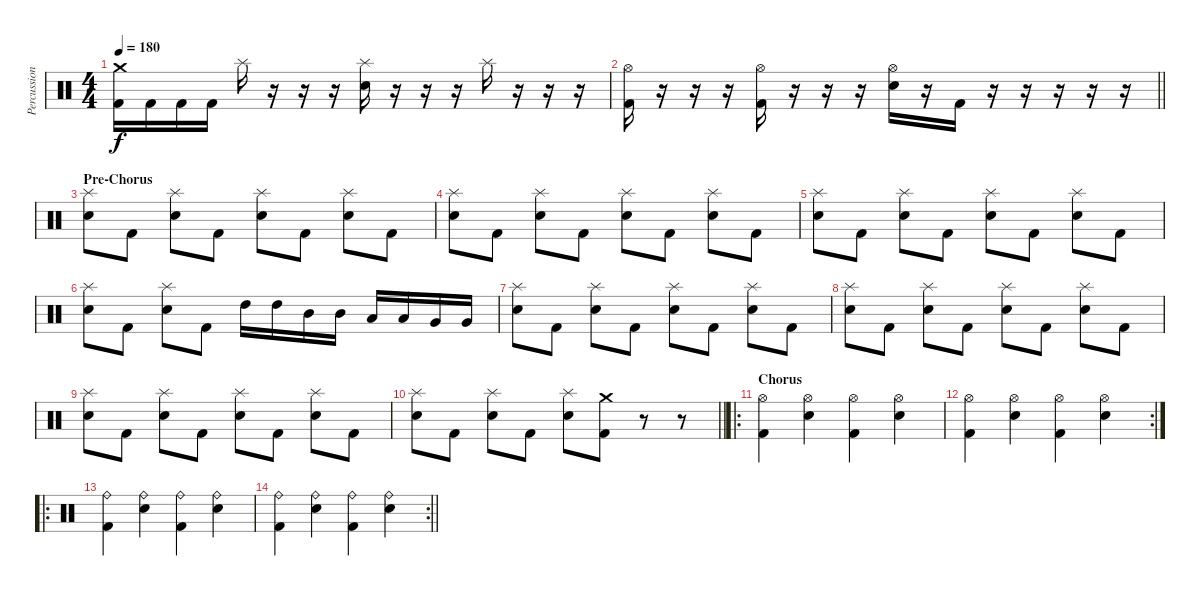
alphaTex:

\track ("Percussion" "Percussion") {instrument percussion}
\staff {score}
\articulation defaults
\ts (4 4)
\tempo 180
\clef neutral
\ks c
("Crash medium (hit)" "Kick (hit) 2").16{dy f} "Kick (hit) 2".16 "Kick (hit) 2".16 "Kick (hit) 2".16 "Splash (hit)".16 r.16 r.16 r.16 ("Splash (hit)" "Electric Snare (hit)").16 r.16 r.16 r.16 "Splash (hit)".16 r.16 r.16 r.16 |
\barLineRight lightlight
("Hi-Hat (open)" "Kick (hit) 2").16 r.16 r.16 r.16 ("Hi-Hat (open)" "Kick (hit) 2").16 r.16 r.16 r.16 ("Hi-Hat (open)" "Electric Snare (hit)").16 r.16 "Kick (hit) 2".16 r.16 r.16 r.16 r.16 r.16 |
\section ("" "Pre-Chorus")
("Splash (hit)" "Electric Snare (hit)").8 "Kick (hit) 2".8 ("Splash (hit)" "Electric Snare (hit)").8 "Kick (hit) 2".8 ("Splash (hit)" "Electric Snare (hit)").8 "Kick (hit) 2".8 ("Splash (hit)" "Electric Snare (hit)").8 "Kick (hit) 2".8 |
("Splash (hit)" "Electric Snare (hit)").8 "Kick (hit) 2".8 ("Splash (hit)" "Electric Snare (hit)").8 "Kick (hit) 2".8 ("Splash (hit)" "Electric Snare (hit)").8 "Kick (hit) 2".8 ("Splash (hit)" "Electric Snare (hit)").8 "Kick (hit) 2".8 |
("Splash (hit)" "Electric Snare (hit)").8 "Kick (hit) 2".8 ("Splash (hit)" "Electric Snare (hit)").8 "Kick (hit) 2".8 ("Splash (hit)" "Electric Snare (hit)").8 "Kick (hit) 2".8 ("Splash (hit)" "Electric Snare (hit)").8 "Kick (hit) 2".8 |
("Splash (hit)" "Electric Snare (hit)").8 "Kick (hit) 2".8 ("Splash (hit)" "Electric Snare (hit)").8 "Kick (hit) 2".8 "High Tom (hit)".16 "High Tom (hit)".16 "Mid Tom (hit)".16 "Mid Tom (hit)".16 "Low Tom (hit)".16 "Low Tom (hit)".16 "Very Low Tom (hit)".16 "Very Low Tom (hit)".16 |
("Splash (hit)" "Electric Snare (hit)").8 "Kick (hit) 2".8 ("Splash (hit)" "Electric Snare (hit)").8 "Kick (hit) 2".8 ("Splash (hit)" "Electric Snare (hit)").8 "Kick (hit) 2".8 ("Splash (hit)" "Electric Snare (hit)").8 "Kick (hit) 2".8 |
("Splash (hit)" "Electric Snare (hit)").8 "Kick (hit) 2".8 ("Splash (hit)" "Electric Snare (hit)").8 "Kick (hit) 2".8 ("Splash (hit)" "Electric Snare (hit)").8 "Kick (hit) 2".8 ("Splash (hit)" "Electric Snare (hit)").8 "Kick (hit) 2".8 |
("Splash (hit)" "Electric Snare (hit)").8 "Kick (hit) 2".8 ("Splash (hit)" "Electric Snare (hit)").8 "Kick (hit) 2".8 ("Splash (hit)" "Electric Snare (hit)").8 "Kick (hit) 2".8 ("Splash (hit)" "Electric Snare (hit)").8 "Kick (hit) 2".8 |
\barLineRight lightlight
("Splash (hit)" "Electric Snare (hit)").8 "Kick (hit) 2".8 ("Splash (hit)" "Electric Snare (hit)").8 "Kick (hit) 2".8 ("Splash (hit)" "Electric Snare (hit)").8 ("Crash medium (hit)" "Kick (hit) 2").8 r.8 r.8 |
\ro
\section ("" "Chorus")
("Hi-Hat (open)" "Kick (hit) 2").4 ("Hi-Hat (open)" "Electric Snare (hit)").4 ("Hi-Hat (open)" "Kick (hit) 2").4 ("Hi-Hat (open)" "Electric Snare (hit)").4 |
\rc 2
("Hi-Hat (open)" "Kick (hit) 2").4 ("Hi-Hat (open)" "Electric Snare (hit)").4 ("Hi-Hat (open)" "Kick (hit) 2").4 ("Hi-Hat (open)" "Electric Snare (hit)").4 |
\ro
("Ride (bell)" "Kick (hit) 2").4 ("Ride (bell)" "Electric Snare (hit)").4 ("Ride (bell)" "Kick (hit) 2").4 ("Ride (bell)" "Electric Snare (hit)").4 |
\rc 2
\barLineRight lightlight
("Ride (bell)" "Kick (hit) 2").4 ("Ride (bell)" "Electric Snare (hit)").4 ("Ride (bell)" "Kick (hit) 2").4 ("Ride (bell)" "Electric Snare (hit)").4
